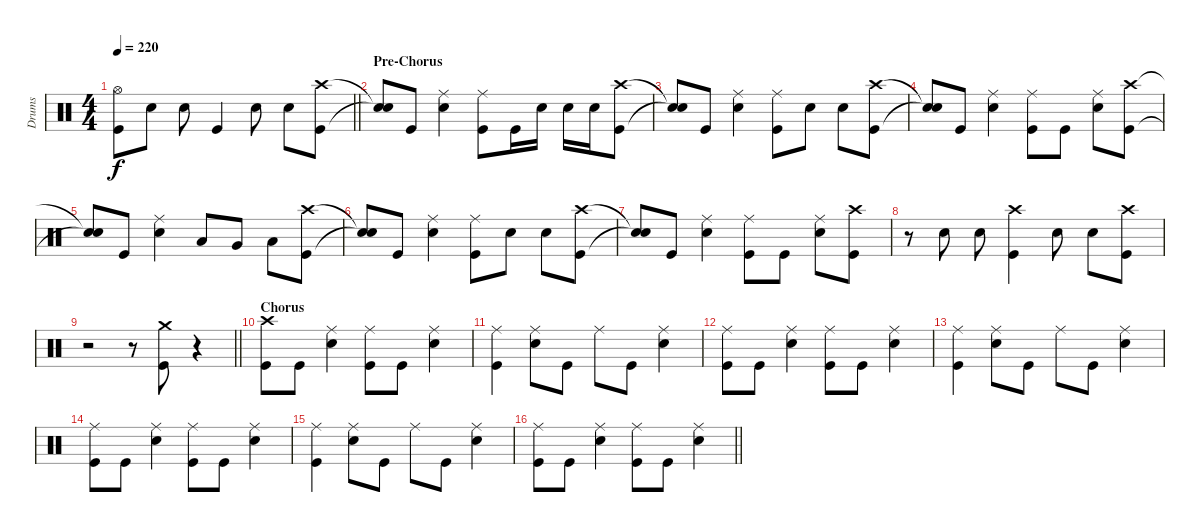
\track ("Drums" "Drums") {instrument percussion}
\staff {score}
\articulation defaults
\ts (4 4)
\tempo 220
\clef neutral
\barLineRight lightlight
\ks c
("Hi-Hat (open)" "Kick (hit)").8{dy f} "Snare (hit) 2".8 "Snare (hit) 2".8 "Kick (hit)".4 "Snare (hit) 2".8 "Snare (hit) 2".8 ("Crash high (hit)" "Kick (hit)").8 |
\section ("" "Pre-Chorus")
("Snare (hit)"{t} "Snare (hit)"{t}).8 "Kick (hit)".8 ("Ride (middle)" "Snare (hit) 2").4 ("Ride (middle)" "Kick (hit)").8 "Kick (hit)".16 "Snare (hit) 2".16 "Snare (hit) 2".16 "Snare (hit) 2".16 ("Crash high (hit)" "Kick (hit)").8 |
("Snare (hit)"{t} "Snare (hit)"{t}).8 "Kick (hit)".8 ("Ride (middle)" "Snare (hit) 2").4 ("Ride (middle)" "Kick (hit)").8 "Snare (hit) 2".8 "Snare (hit) 2".8 ("Crash high (hit)" "Kick (hit)").8 |
("Snare (hit)"{t} "Snare (hit)"{t}).8 "Kick (hit)".8 ("Ride (middle)" "Snare (hit) 2").4 ("Ride (middle)" "Kick (hit)").8 "Kick (hit)".8 ("Ride (middle)" "Snare (hit) 2").8 ("Crash high (hit)" "Kick (hit)").8 |
("Snare (hit)"{t} "Snare (hit)"{t}).8 "Kick (hit)".8 ("Ride (middle)" "Snare (hit) 2").4 "Low Tom (hit)".8 "Very Low Tom (hit)".8 "Low Floor Tom (hit)".8 ("Crash high (hit)" "Kick (hit)").8 |
("Snare (hit)"{t} "Snare (hit)"{t}).8 "Kick (hit)".8 ("Ride (middle)" "Snare (hit) 2").4 ("Ride (middle)" "Kick (hit)").8 "Snare (hit) 2".8 "Snare (hit) 2".8 ("Crash high (hit)" "Kick (hit)").8 |
("Snare (hit)"{t} "Snare (hit)"{t}).8 "Kick (hit)".8 ("Ride (middle)" "Snare (hit) 2").4 ("Ride (middle)" "Kick (hit)").8 "Kick (hit)".8 ("Ride (middle)" "Snare (hit) 2").8 ("Crash high (hit)" "Kick (hit)").8 |
r.8 "Snare (hit) 2".8 "Snare (hit) 2".8 ("Crash high (hit)" "Kick (hit)").4 "Snare (hit) 2".8 "Snare (hit) 2".8 ("Crash high (hit)" "Kick (hit)").8 |
\barLineRight lightlight
r.2 r.8 ("Crash medium (hit)" "Kick (hit)").8 r.4 |
\section ("" "Chorus")
("Crash high (hit)" "Kick (hit)").8 "Kick (hit)".8 ("Ride (middle)" "Snare (hit) 2").4 ("Ride (middle)" "Kick (hit)").8 "Kick (hit)".8 ("Ride (middle)" "Snare (hit) 2").4 |
("Ride (middle)" "Kick (hit)").4 ("Ride (middle)" "Snare (hit) 2").8 "Kick (hit)".8 "Ride (middle)".8 "Kick (hit)".8 ("Ride (middle)" "Snare (hit) 2").4 |
("Ride (middle)" "Kick (hit)").8 "Kick (hit)".8 ("Ride (middle)" "Snare (hit) 2").4 ("Ride (middle)" "Kick (hit)").8 "Kick (hit)".8 ("Ride (middle)" "Snare (hit) 2").4 |
("Ride (middle)" "Kick (hit)").4 ("Ride (middle)" "Snare (hit) 2").8 "Kick (hit)".8 "Ride (middle)".8 "Kick (hit)".8 ("Ride (middle)" "Snare (hit) 2").4 |
("Ride (middle)" "Kick (hit)").8 "Kick (hit)".8 ("Ride (middle)" "Snare (hit) 2").4 ("Ride (middle)" "Kick (hit)").8 "Kick (hit)".8 ("Ride (middle)" "Snare (hit) 2").4 |
("Ride (middle)" "Kick (hit)").4 ("Ride (middle)" "Snare (hit) 2").8 "Kick (hit)".8 "Ride (middle)".8 "Kick (hit)".8 ("Ride (middle)" "Snare (hit) 2").4 |
\barLineRight lightlight
("Ride (middle)" "Kick (hit)").8 "Kick (hit)".8 ("Ride (middle)" "Snare (hit) 2").4 ("Ride (middle)" "Kick (hit)").8 "Kick (hit)".8 ("Ride (middle)" "Snare (hit) 2").4
